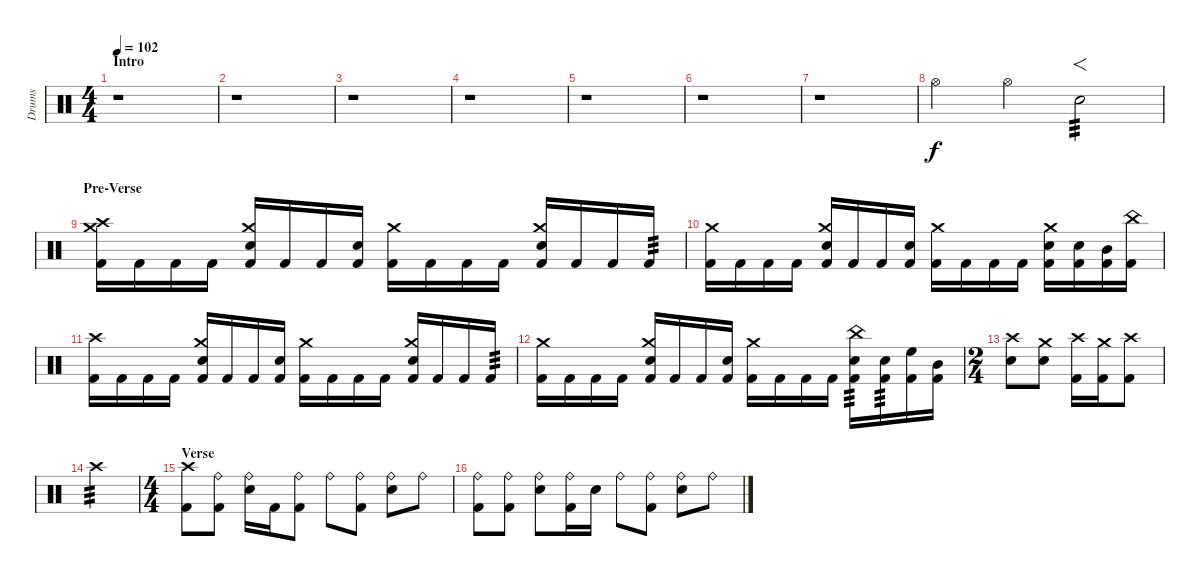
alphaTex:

\track ("Drums" "Drums") {instrument percussion}
\staff {score}
\articulation defaults
\ts (4 4)
\section ("" "Intro")
\tempo 102
\clef neutral
\ks c
r.1{dy f} |
r.1 |
r.1 |
r.1 |
r.1 |
r.1 |
r.1 |
"Hi-Hat (open)".4 "Hi-Hat (open)".4 "Snare (hit) 2".2{f tp 3} |
\section ("" "Pre-Verse")
("Crash high (hit)" "Crash medium (hit)" "Kick (hit) 2").16 "Kick (hit) 2".16 "Kick (hit) 2".16 "Kick (hit) 2".16 ("Crash medium (hit)" "Snare (hit) 2" "Kick (hit) 2").16 "Kick (hit) 2".16 "Kick (hit) 2".16 ("Snare (hit) 2" "Kick (hit) 2").16 ("Crash medium (hit)" "Kick (hit) 2").16 "Kick (hit) 2".16 "Kick (hit) 2".16 "Kick (hit) 2".16 ("Crash medium (hit)" "Snare (hit) 2" "Kick (hit) 2").16 "Kick (hit) 2".16 "Kick (hit) 2".16 "Kick (hit) 2".16{tp 3} |
("Crash medium (hit)" "Kick (hit) 2").16 "Kick (hit) 2".16 "Kick (hit) 2".16 "Kick (hit) 2".16 ("Crash medium (hit)" "Snare (hit) 2" "Kick (hit) 2").16 "Kick (hit) 2".16 "Kick (hit) 2".16 ("Snare (hit) 2" "Kick (hit) 2").16 ("Crash medium (hit)" "Kick (hit) 2").16 "Kick (hit) 2".16 "Kick (hit) 2".16 "Kick (hit) 2".16 ("Crash medium (hit)" "Snare (hit) 2" "Kick (hit) 2").16 ("Snare (hit) 2" "Kick (hit) 2").16 ("Mid Tom (hit)" "Kick (hit) 2").16 ("China (hit)" "Kick (hit) 2").16 |
("Crash high (hit)" "Kick (hit) 2").16 "Kick (hit) 2".16 "Kick (hit) 2".16 "Kick (hit) 2".16 ("Crash medium (hit)" "Snare (hit) 2" "Kick (hit) 2").16 "Kick (hit) 2".16 "Kick (hit) 2".16 ("Snare (hit) 2" "Kick (hit) 2").16 ("Crash medium (hit)" "Kick (hit) 2").16 "Kick (hit) 2".16 "Kick (hit) 2".16 "Kick (hit) 2".16 ("Crash medium (hit)" "Snare (hit) 2" "Kick (hit) 2").16 "Kick (hit) 2".16 "Kick (hit) 2".16 "Kick (hit) 2".16{tp 3} |
("Crash medium (hit)" "Kick (hit) 2").16 "Kick (hit) 2".16 "Kick (hit) 2".16 "Kick (hit) 2".16 ("Crash medium (hit)" "Snare (hit) 2" "Kick (hit) 2").16 "Kick (hit) 2".16 "Kick (hit) 2".16 ("Snare (hit) 2" "Kick (hit) 2").16 ("Crash medium (hit)" "Kick (hit) 2").16 "Kick (hit) 2".16 "Kick (hit) 2".16 "Kick (hit) 2".16 ("China (hit)" "Snare (hit) 2" "Kick (hit) 2").16{tp 3} ("Snare (hit) 2" "Kick (hit) 2").16{tp 3} ("High Floor Tom (hit)" "Kick (hit) 2").16 ("Mid Tom (hit)" "Kick (hit) 2").16 |
\ts (2 4)
("Crash high (hit)" "Snare (hit) 2").8 ("Crash medium (hit)" "Snare (hit) 2").8 ("Crash high (hit)" "Kick (hit) 2").16 ("Crash medium (hit)" "Kick (hit) 2").16 ("Crash high (hit)" "Kick (hit) 2").8 |
"Crash high (hit)".2{tp 3 volume 10} |
\ts (4 4)
\section ("" "Verse")
("Crash high (hit)" "Kick (hit) 2").8{volume 13} ("Ride (bell)" "Kick (hit) 2").8 ("Ride (bell)" "Snare (hit) 2").16 "Kick (hit) 2".16 ("Ride (bell)" "Kick (hit) 2").8 "Ride (bell)".8 ("Ride (bell)" "Kick (hit) 2").8 ("Ride (bell)" "Snare (hit) 2").8 "Ride (bell)".8 |
("Ride (bell)" "Kick (hit) 2").8 ("Ride (bell)" "Kick (hit) 2").8 ("Ride (bell)" "Snare (hit) 2").8 ("Ride (bell)" "Kick (hit) 2").16 "Snare (hit) 2".16 "Ride (bell)".8 ("Ride (bell)" "Kick (hit) 2").8 ("Ride (bell)" "Snare (hit) 2").8 "Ride (bell)".8
